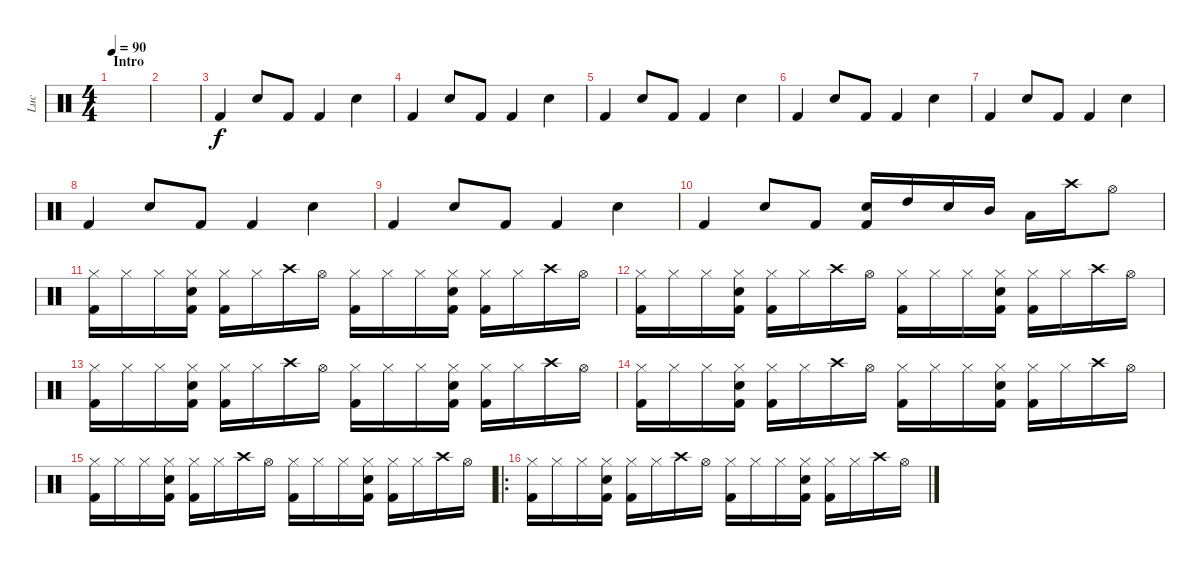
\track ("Luc" "Luc") {instrument percussion}
\staff {score}
\articulation defaults
\ts (4 4)
\section ("" "Intro")
\tempo 90
\clef neutral
\ks c
|
|
"Kick (hit) 2".4 "Snare (hit) 2".8 "Kick (hit) 2".8 "Kick (hit) 2".4 "Snare (hit) 2".4 |
"Kick (hit) 2".4 "Snare (hit) 2".8 "Kick (hit) 2".8 "Kick (hit) 2".4 "Snare (hit) 2".4 |
"Kick (hit) 2".4 "Snare (hit) 2".8 "Kick (hit) 2".8 "Kick (hit) 2".4 "Snare (hit) 2".4 |
"Kick (hit) 2".4 "Snare (hit) 2".8 "Kick (hit) 2".8 "Kick (hit) 2".4 "Snare (hit) 2".4 |
"Kick (hit) 2".4 "Snare (hit) 2".8 "Kick (hit) 2".8 "Kick (hit) 2".4 "Snare (hit) 2".4 |
"Kick (hit) 2".4 "Snare (hit) 2".8 "Kick (hit) 2".8 "Kick (hit) 2".4 "Snare (hit) 2".4 |
"Kick (hit) 2".4 "Snare (hit) 2".8 "Kick (hit) 2".8 "Kick (hit) 2".4 "Snare (hit) 2".4 |
"Kick (hit) 2".4 "Snare (hit) 2".8 "Kick (hit) 2".8 ("Snare (hit) 2" "Kick (hit) 2").16 "High Tom (hit)".16 "Snare (hit) 2".16 "Mid Tom (hit)".16 "Low Tom (hit)".16 "Crash high (hit)".16 "Hi-Hat (open)".8 |
("Hi-Hat (closed)" "Kick (hit) 2").16 "Hi-Hat (closed)".16 "Hi-Hat (closed)".16 ("Hi-Hat (closed)" "Snare (hit) 2" "Kick (hit) 2").16 ("Hi-Hat (closed)" "Kick (hit) 2").16 "Hi-Hat (closed)".16 "Crash high (hit)".16 "Hi-Hat (open)".16 ("Hi-Hat (closed)" "Kick (hit) 2").16 "Hi-Hat (closed)".16 "Hi-Hat (closed)".16 ("Hi-Hat (closed)" "Snare (hit) 2" "Kick (hit) 2").16 ("Hi-Hat (closed)" "Kick (hit) 2").16 "Hi-Hat (closed)".16 "Crash high (hit)".16 "Hi-Hat (open)".16 |
("Hi-Hat (closed)" "Kick (hit) 2").16 "Hi-Hat (closed)".16 "Hi-Hat (closed)".16 ("Hi-Hat (closed)" "Snare (hit) 2" "Kick (hit) 2").16 ("Hi-Hat (closed)" "Kick (hit) 2").16 "Hi-Hat (closed)".16 "Crash high (hit)".16 "Hi-Hat (open)".16 ("Hi-Hat (closed)" "Kick (hit) 2").16 "Hi-Hat (closed)".16 "Hi-Hat (closed)".16 ("Hi-Hat (closed)" "Snare (hit) 2" "Kick (hit) 2").16 ("Hi-Hat (closed)" "Kick (hit) 2").16 "Hi-Hat (closed)".16 "Crash high (hit)".16 "Hi-Hat (open)".16 |
("Hi-Hat (closed)" "Kick (hit) 2").16 "Hi-Hat (closed)".16 "Hi-Hat (closed)".16 ("Hi-Hat (closed)" "Snare (hit) 2" "Kick (hit) 2").16 ("Hi-Hat (closed)" "Kick (hit) 2").16 "Hi-Hat (closed)".16 "Crash high (hit)".16 "Hi-Hat (open)".16 ("Hi-Hat (closed)" "Kick (hit) 2").16 "Hi-Hat (closed)".16 "Hi-Hat (closed)".16 ("Hi-Hat (closed)" "Snare (hit) 2" "Kick (hit) 2").16 ("Hi-Hat (closed)" "Kick (hit) 2").16 "Hi-Hat (closed)".16 "Crash high (hit)".16 "Hi-Hat (open)".16 |
("Hi-Hat (closed)" "Kick (hit) 2").16 "Hi-Hat (closed)".16 "Hi-Hat (closed)".16 ("Hi-Hat (closed)" "Snare (hit) 2" "Kick (hit) 2").16 ("Hi-Hat (closed)" "Kick (hit) 2").16 "Hi-Hat (closed)".16 "Crash high (hit)".16 "Hi-Hat (open)".16 ("Hi-Hat (closed)" "Kick (hit) 2").16 "Hi-Hat (closed)".16 "Hi-Hat (closed)".16 ("Hi-Hat (closed)" "Snare (hit) 2" "Kick (hit) 2").16 ("Hi-Hat (closed)" "Kick (hit) 2").16 "Hi-Hat (closed)".16 "Crash high (hit)".16 "Hi-Hat (open)".16 |
("Hi-Hat (closed)" "Kick (hit) 2").16 "Hi-Hat (closed)".16 "Hi-Hat (closed)".16 ("Hi-Hat (closed)" "Snare (hit) 2" "Kick (hit) 2").16 ("Hi-Hat (closed)" "Kick (hit) 2").16 "Hi-Hat (closed)".16 "Crash high (hit)".16 "Hi-Hat (open)".16 ("Hi-Hat (closed)" "Kick (hit) 2").16 "Hi-Hat (closed)".16 "Hi-Hat (closed)".16 ("Hi-Hat (closed)" "Snare (hit) 2" "Kick (hit) 2").16 ("Hi-Hat (closed)" "Kick (hit) 2").16 "Hi-Hat (closed)".16 "Crash high (hit)".16 "Hi-Hat (open)".16 |
\ro
("Hi-Hat (closed)" "Kick (hit) 2").16 "Hi-Hat (closed)".16 "Hi-Hat (closed)".16 ("Hi-Hat (closed)" "Snare (hit) 2" "Kick (hit) 2").16 ("Hi-Hat (closed)" "Kick (hit) 2").16 "Hi-Hat (closed)".16 "Crash high (hit)".16 "Hi-Hat (open)".16 ("Hi-Hat (closed)" "Kick (hit) 2").16 "Hi-Hat (closed)".16 "Hi-Hat (closed)".16 ("Hi-Hat (closed)" "Snare (hit) 2" "Kick (hit) 2").16 ("Hi-Hat (closed)" "Kick (hit) 2").16 "Hi-Hat (closed)".16 "Crash high (hit)".16 "Hi-Hat (open)".16
